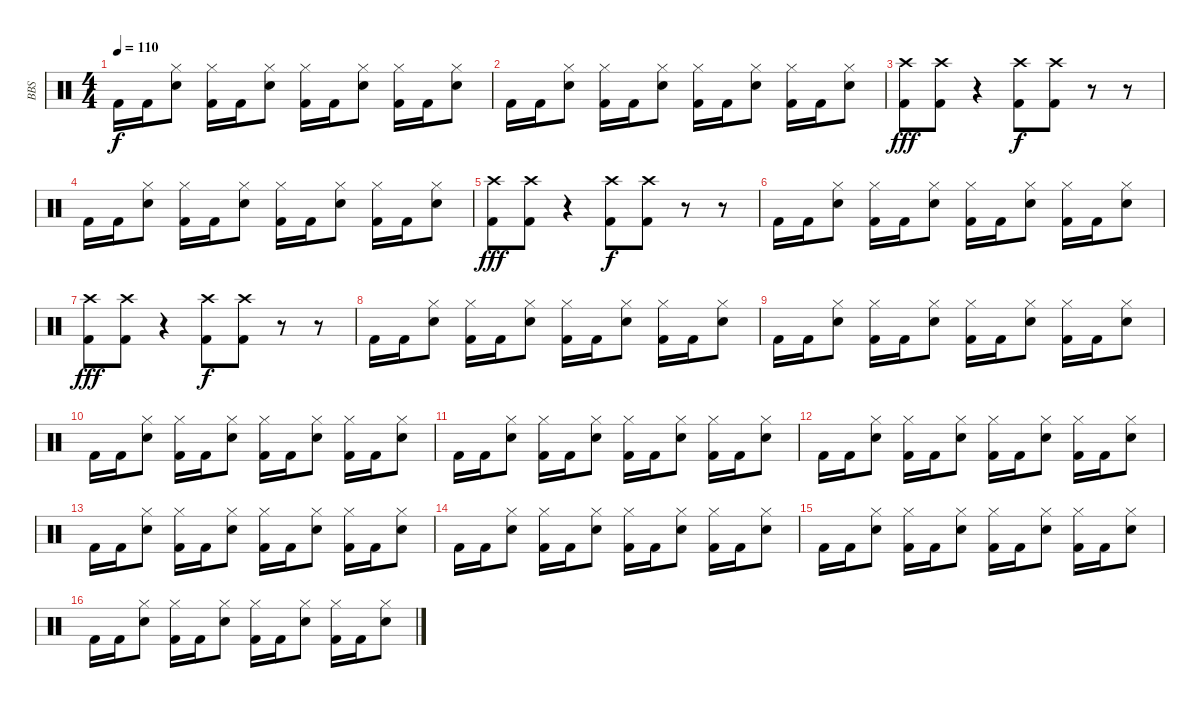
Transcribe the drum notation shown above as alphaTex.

\track ("BBS" "BBS") {instrument percussion}
\staff {score}
\articulation defaults
\ts (4 4)
\tempo 110
\clef neutral
\ks c "Kick (hit) 2".16{dy f} "Kick (hit) 2".16
("Hi-Hat (closed)" "Snare (hit) 2").8 ("Hi-Hat (closed)" "Kick (hit) 2").16 "Kick (hit) 2".16 ("Hi-Hat (closed)" "Snare (hit) 2").8 ("Hi-Hat (closed)" "Kick (hit) 2").16 "Kick (hit) 2".16 ("Hi-Hat (closed)" "Snare (hit) 2").8 ("Hi-Hat (closed)" "Kick (hit) 2").16 "Kick (hit) 2".16 ("Hi-Hat (closed)" "Snare (hit) 2").8 |
"Kick (hit) 2".16 "Kick (hit) 2".16 ("Hi-Hat (closed)" "Snare (hit) 2").8 ("Hi-Hat (closed)" "Kick (hit) 2").16 "Kick (hit) 2".16 ("Hi-Hat (closed)" "Snare (hit) 2").8 ("Hi-Hat (closed)" "Kick (hit) 2").16 "Kick (hit) 2".16 ("Hi-Hat (closed)" "Snare (hit) 2").8 ("Hi-Hat (closed)" "Kick (hit) 2").16 "Kick (hit) 2".16 ("Hi-Hat (closed)" "Snare (hit) 2").8 |
("Crash high (hit)" "Kick (hit) 2").8{dy fff} ("Crash high (hit)" "Kick (hit) 2").8 r.4 ("Crash high (hit)" "Kick (hit) 2").8{dy f} ("Crash high (hit)" "Kick (hit) 2").8 r.8 r.8 |
"Kick (hit) 2".16 "Kick (hit) 2".16 ("Hi-Hat (closed)" "Snare (hit) 2").8 ("Hi-Hat (closed)" "Kick (hit) 2").16 "Kick (hit) 2".16 ("Hi-Hat (closed)" "Snare (hit) 2").8 ("Hi-Hat (closed)" "Kick (hit) 2").16 "Kick (hit) 2".16 ("Hi-Hat (closed)" "Snare (hit) 2").8 ("Hi-Hat (closed)" "Kick (hit) 2").16 "Kick (hit) 2".16 ("Hi-Hat (closed)" "Snare (hit) 2").8 |
("Crash high (hit)" "Kick (hit) 2").8{dy fff} ("Crash high (hit)" "Kick (hit) 2").8 r.4 ("Crash high (hit)" "Kick (hit) 2").8{dy f} ("Crash high (hit)" "Kick (hit) 2").8 r.8 r.8 |
"Kick (hit) 2".16 "Kick (hit) 2".16 ("Hi-Hat (closed)" "Snare (hit) 2").8 ("Hi-Hat (closed)" "Kick (hit) 2").16 "Kick (hit) 2".16 ("Hi-Hat (closed)" "Snare (hit) 2").8 ("Hi-Hat (closed)" "Kick (hit) 2").16 "Kick (hit) 2".16 ("Hi-Hat (closed)" "Snare (hit) 2").8 ("Hi-Hat (closed)" "Kick (hit) 2").16 "Kick (hit) 2".16 ("Hi-Hat (closed)" "Snare (hit) 2").8 |
("Crash high (hit)" "Kick (hit) 2").8{dy fff} ("Crash high (hit)" "Kick (hit) 2").8 r.4 ("Crash high (hit)" "Kick (hit) 2").8{dy f} ("Crash high (hit)" "Kick (hit) 2").8 r.8 r.8 |
"Kick (hit) 2".16 "Kick (hit) 2".16 ("Hi-Hat (closed)" "Snare (hit) 2").8 ("Hi-Hat (closed)" "Kick (hit) 2").16 "Kick (hit) 2".16 ("Hi-Hat (closed)" "Snare (hit) 2").8 ("Hi-Hat (closed)" "Kick (hit) 2").16 "Kick (hit) 2".16 ("Hi-Hat (closed)" "Snare (hit) 2").8 ("Hi-Hat (closed)" "Kick (hit) 2").16 "Kick (hit) 2".16 ("Hi-Hat (closed)" "Snare (hit) 2").8 |
"Kick (hit) 2".16 "Kick (hit) 2".16 ("Hi-Hat (closed)" "Snare (hit) 2").8 ("Hi-Hat (closed)" "Kick (hit) 2").16 "Kick (hit) 2".16 ("Hi-Hat (closed)" "Snare (hit) 2").8 ("Hi-Hat (closed)" "Kick (hit) 2").16 "Kick (hit) 2".16 ("Hi-Hat (closed)" "Snare (hit) 2").8 ("Hi-Hat (closed)" "Kick (hit) 2").16 "Kick (hit) 2".16 ("Hi-Hat (closed)" "Snare (hit) 2").8 |
"Kick (hit) 2".16 "Kick (hit) 2".16 ("Hi-Hat (closed)" "Snare (hit) 2").8 ("Hi-Hat (closed)" "Kick (hit) 2").16 "Kick (hit) 2".16 ("Hi-Hat (closed)" "Snare (hit) 2").8 ("Hi-Hat (closed)" "Kick (hit) 2").16 "Kick (hit) 2".16 ("Hi-Hat (closed)" "Snare (hit) 2").8 ("Hi-Hat (closed)" "Kick (hit) 2").16 "Kick (hit) 2".16 ("Hi-Hat (closed)" "Snare (hit) 2").8 |
"Kick (hit) 2".16 "Kick (hit) 2".16 ("Hi-Hat (closed)" "Snare (hit) 2").8 ("Hi-Hat (closed)" "Kick (hit) 2").16 "Kick (hit) 2".16 ("Hi-Hat (closed)" "Snare (hit) 2").8 ("Hi-Hat (closed)" "Kick (hit) 2").16 "Kick (hit) 2".16 ("Hi-Hat (closed)" "Snare (hit) 2").8 ("Hi-Hat (closed)" "Kick (hit) 2").16 "Kick (hit) 2".16 ("Hi-Hat (closed)" "Snare (hit) 2").8 |
"Kick (hit) 2".16 "Kick (hit) 2".16 ("Hi-Hat (closed)" "Snare (hit) 2").8 ("Hi-Hat (closed)" "Kick (hit) 2").16 "Kick (hit) 2".16 ("Hi-Hat (closed)" "Snare (hit) 2").8 ("Hi-Hat (closed)" "Kick (hit) 2").16 "Kick (hit) 2".16 ("Hi-Hat (closed)" "Snare (hit) 2").8 ("Hi-Hat (closed)" "Kick (hit) 2").16 "Kick (hit) 2".16 ("Hi-Hat (closed)" "Snare (hit) 2").8 |
"Kick (hit) 2".16 "Kick (hit) 2".16 ("Hi-Hat (closed)" "Snare (hit) 2").8 ("Hi-Hat (closed)" "Kick (hit) 2").16 "Kick (hit) 2".16 ("Hi-Hat (closed)" "Snare (hit) 2").8 ("Hi-Hat (closed)" "Kick (hit) 2").16 "Kick (hit) 2".16 ("Hi-Hat (closed)" "Snare (hit) 2").8 ("Hi-Hat (closed)" "Kick (hit) 2").16 "Kick (hit) 2".16 ("Hi-Hat (closed)" "Snare (hit) 2").8 |
"Kick (hit) 2".16 "Kick (hit) 2".16 ("Hi-Hat (closed)" "Snare (hit) 2").8 ("Hi-Hat (closed)" "Kick (hit) 2").16 "Kick (hit) 2".16 ("Hi-Hat (closed)" "Snare (hit) 2").8 ("Hi-Hat (closed)" "Kick (hit) 2").16 "Kick (hit) 2".16 ("Hi-Hat (closed)" "Snare (hit) 2").8 ("Hi-Hat (closed)" "Kick (hit) 2").16 "Kick (hit) 2".16 ("Hi-Hat (closed)" "Snare (hit) 2").8 |
"Kick (hit) 2".16 "Kick (hit) 2".16 ("Hi-Hat (closed)" "Snare (hit) 2").8 ("Hi-Hat (closed)" "Kick (hit) 2").16 "Kick (hit) 2".16 ("Hi-Hat (closed)" "Snare (hit) 2").8 ("Hi-Hat (closed)" "Kick (hit) 2").16 "Kick (hit) 2".16 ("Hi-Hat (closed)" "Snare (hit) 2").8 ("Hi-Hat (closed)" "Kick (hit) 2").16 "Kick (hit) 2".16 ("Hi-Hat (closed)" "Snare (hit) 2").8 |
"Kick (hit) 2".16 "Kick (hit) 2".16 ("Hi-Hat (closed)" "Snare (hit) 2").8 ("Hi-Hat (closed)" "Kick (hit) 2").16 "Kick (hit) 2".16 ("Hi-Hat (closed)" "Snare (hit) 2").8 ("Hi-Hat (closed)" "Kick (hit) 2").16 "Kick (hit) 2".16 ("Hi-Hat (closed)" "Snare (hit) 2").8 ("Hi-Hat (closed)" "Kick (hit) 2").16 "Kick (hit) 2".16 ("Hi-Hat (closed)" "Snare (hit) 2").8
